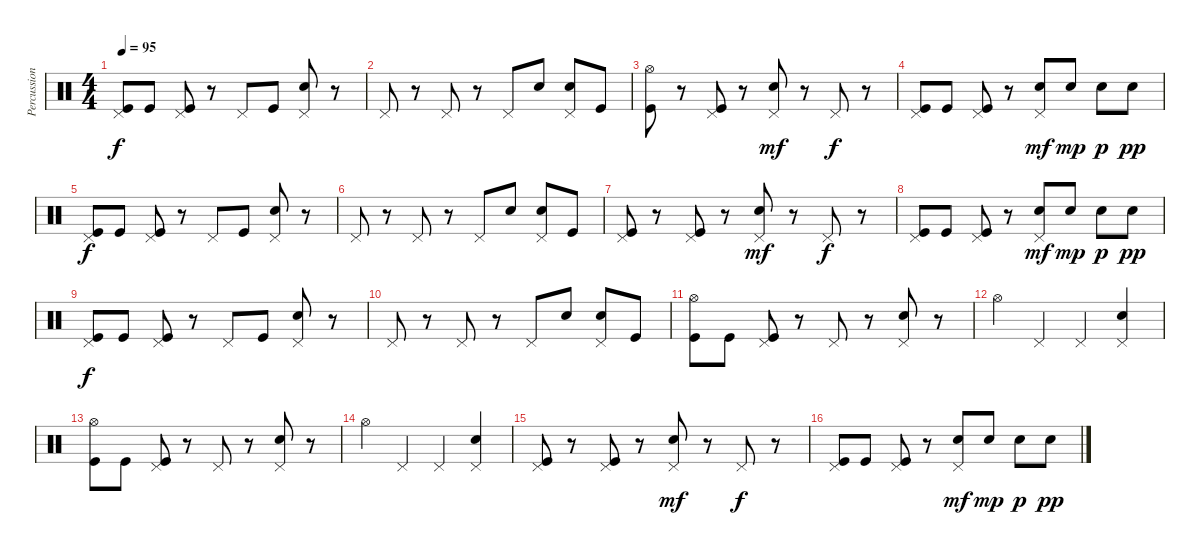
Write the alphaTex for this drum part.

\track ("Percussion" "Percussion") {instrument percussion}
\staff {score}
\articulation defaults
\ts (4 4)
\tempo 95
\clef neutral
\ks c
("Pedal Hi-Hat (hit)" "Kick (hit)").8{dy f} "Kick (hit)".8 ("Pedal Hi-Hat (hit)" "Kick (hit)").8 r.8 "Pedal Hi-Hat (hit)".8 "Kick (hit)".8 ("Pedal Hi-Hat (hit)" "Electric Snare (hit)").8 r.8 |
"Pedal Hi-Hat (hit)".8 r.8 "Pedal Hi-Hat (hit)".8 r.8 "Pedal Hi-Hat (hit)".8 "Electric Snare (hit)".8 ("Pedal Hi-Hat (hit)" "Electric Snare (hit)").8 "Kick (hit)".8 |
("Hi-Hat (open)" "Kick (hit)").8 r.8 ("Pedal Hi-Hat (hit)" "Kick (hit)").8 r.8 ("Pedal Hi-Hat (hit)" "Electric Snare (hit)").8{dy mf} r.8 "Pedal Hi-Hat (hit)".8{dy f} r.8 |
("Pedal Hi-Hat (hit)" "Kick (hit)").8 "Kick (hit)".8 ("Pedal Hi-Hat (hit)" "Kick (hit)").8 r.8 ("Pedal Hi-Hat (hit)" "Electric Snare (hit)").8{dy mf} "Electric Snare (hit)".8{dy mp} "Electric Snare (hit)".8{dy p} "Electric Snare (hit)".8{dy pp} |
("Pedal Hi-Hat (hit)" "Kick (hit)").8{dy f} "Kick (hit)".8 ("Pedal Hi-Hat (hit)" "Kick (hit)").8 r.8 "Pedal Hi-Hat (hit)".8 "Kick (hit)".8 ("Pedal Hi-Hat (hit)" "Electric Snare (hit)").8 r.8 |
"Pedal Hi-Hat (hit)".8 r.8 "Pedal Hi-Hat (hit)".8 r.8 "Pedal Hi-Hat (hit)".8 "Electric Snare (hit)".8 ("Pedal Hi-Hat (hit)" "Electric Snare (hit)").8 "Kick (hit)".8 |
("Pedal Hi-Hat (hit)" "Kick (hit)").8 r.8 ("Pedal Hi-Hat (hit)" "Kick (hit)").8 r.8 ("Pedal Hi-Hat (hit)" "Electric Snare (hit)").8{dy mf} r.8 "Pedal Hi-Hat (hit)".8{dy f} r.8 |
("Pedal Hi-Hat (hit)" "Kick (hit)").8 "Kick (hit)".8 ("Pedal Hi-Hat (hit)" "Kick (hit)").8 r.8 ("Pedal Hi-Hat (hit)" "Electric Snare (hit)").8{dy mf} "Electric Snare (hit)".8{dy mp} "Electric Snare (hit)".8{dy p} "Electric Snare (hit)".8{dy pp} |
("Pedal Hi-Hat (hit)" "Kick (hit)").8{dy f} "Kick (hit)".8 ("Pedal Hi-Hat (hit)" "Kick (hit)").8 r.8 "Pedal Hi-Hat (hit)".8 "Kick (hit)".8 ("Pedal Hi-Hat (hit)" "Electric Snare (hit)").8 r.8 |
"Pedal Hi-Hat (hit)".8 r.8 "Pedal Hi-Hat (hit)".8 r.8 "Pedal Hi-Hat (hit)".8 "Electric Snare (hit)".8 ("Pedal Hi-Hat (hit)" "Electric Snare (hit)").8 "Kick (hit)".8 |
("Hi-Hat (open)" "Kick (hit)").8 "Kick (hit)".8 ("Pedal Hi-Hat (hit)" "Kick (hit)").8 r.8 "Pedal Hi-Hat (hit)".8 r.8 ("Pedal Hi-Hat (hit)" "Electric Snare (hit)").8 r.8 |
"Hi-Hat (open)".4 "Pedal Hi-Hat (hit)".4 "Pedal Hi-Hat (hit)".4 ("Pedal Hi-Hat (hit)" "Electric Snare (hit)").4 |
("Hi-Hat (open)" "Kick (hit)").8 "Kick (hit)".8 ("Pedal Hi-Hat (hit)" "Kick (hit)").8 r.8 "Pedal Hi-Hat (hit)".8 r.8 ("Pedal Hi-Hat (hit)" "Electric Snare (hit)").8 r.8 |
"Hi-Hat (open)".4 "Pedal Hi-Hat (hit)".4 "Pedal Hi-Hat (hit)".4 ("Pedal Hi-Hat (hit)" "Electric Snare (hit)").4 |
("Pedal Hi-Hat (hit)" "Kick (hit)").8 r.8 ("Pedal Hi-Hat (hit)" "Kick (hit)").8 r.8 ("Pedal Hi-Hat (hit)" "Electric Snare (hit)").8{dy mf} r.8 "Pedal Hi-Hat (hit)".8{dy f} r.8 |
("Pedal Hi-Hat (hit)" "Kick (hit)").8 "Kick (hit)".8 ("Pedal Hi-Hat (hit)" "Kick (hit)").8 r.8 ("Pedal Hi-Hat (hit)" "Electric Snare (hit)").8{dy mf} "Electric Snare (hit)".8{dy mp} "Electric Snare (hit)".8{dy p} "Electric Snare (hit)".8{dy pp}
